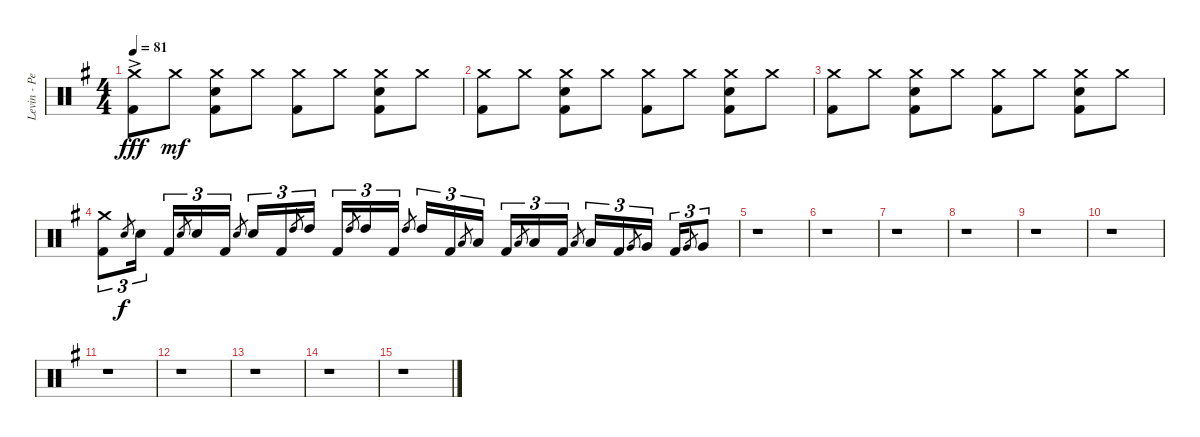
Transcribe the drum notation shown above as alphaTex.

\track ("Levin - Percussion" "Levin - Pe") {instrument percussion}
\staff {score}
\articulation defaults
\ts (4 4)
\tempo 81
\clef neutral
\ks g
("Crash medium (hit)"{ac} "Kick (hit) 2").8{dy fff} "Crash medium (hit)".8{dy mf} ("Crash medium (hit)" "Electric Snare (hit)" "Kick (hit) 2").8 "Crash medium (hit)".8 ("Crash medium (hit)" "Kick (hit) 2").8 "Crash medium (hit)".8 ("Crash medium (hit)" "Electric Snare (hit)" "Kick (hit) 2").8 "Crash medium (hit)".8 |
("Crash medium (hit)" "Kick (hit) 2").8 "Crash medium (hit)".8 ("Crash medium (hit)" "Electric Snare (hit)" "Kick (hit) 2").8 "Crash medium (hit)".8 ("Crash medium (hit)" "Kick (hit) 2").8 "Crash medium (hit)".8 ("Crash medium (hit)" "Electric Snare (hit)" "Kick (hit) 2").8 "Crash medium (hit)".8 |
("Crash medium (hit)" "Kick (hit) 2").8 "Crash medium (hit)".8 ("Crash medium (hit)" "Electric Snare (hit)" "Kick (hit) 2").8 "Crash medium (hit)".8 ("Crash medium (hit)" "Kick (hit) 2").8 "Crash medium (hit)".8 ("Crash medium (hit)" "Electric Snare (hit)" "Kick (hit) 2").8 "Crash medium (hit)".8 |
("Crash medium (hit)" "Kick (hit) 2").8{tu (3 2)} "Electric Snare (hit)".8{gr dy f} "Electric Snare (hit)".16{tu (3 2)} "Kick (hit) 2".16{tu (3 2)} "Electric Snare (hit)".8{gr} "Electric Snare (hit)".16{tu (3 2)} "Kick (hit) 2".16{tu (3 2)} "Electric Snare (hit)".8{gr} "Electric Snare (hit)".16{tu (3 2)} "Kick (hit) 2".16{tu (3 2)} "High Tom (hit)".8{gr} "High Tom (hit)".16{tu (3 2)} "Kick (hit) 2".16{tu (3 2)} "High Tom (hit)".8{gr} "High Tom (hit)".16{tu (3 2)} "Kick (hit) 2".16{tu (3 2)} "High Tom (hit)".8{gr} "High Tom (hit)".16{tu (3 2)} "Kick (hit) 2".16{tu (3 2)} "Low Tom (hit)".8{gr} "Low Tom (hit)".16{tu (3 2)} "Kick (hit) 2".16{tu (3 2)} "Low Tom (hit)".8{gr} "Low Tom (hit)".16{tu (3 2)} "Kick (hit) 2".16{tu (3 2)} "Low Tom (hit)".8{gr} "Low Tom (hit)".16{tu (3 2)} "Kick (hit) 2".16{tu (3 2)} "Very Low Tom (hit)".8{gr} "Very Low Tom (hit)".16{tu (3 2)} "Kick (hit) 2".16{tu (3 2)} "Very Low Tom (hit)".8{gr} "Very Low Tom (hit)".8{tu (3 2)} |
r.1 |
r.1 |
r.1 |
r.1 |
r.1 |
r.1 |
r.1 |
r.1 |
r.1 |
r.1 |
r.1
